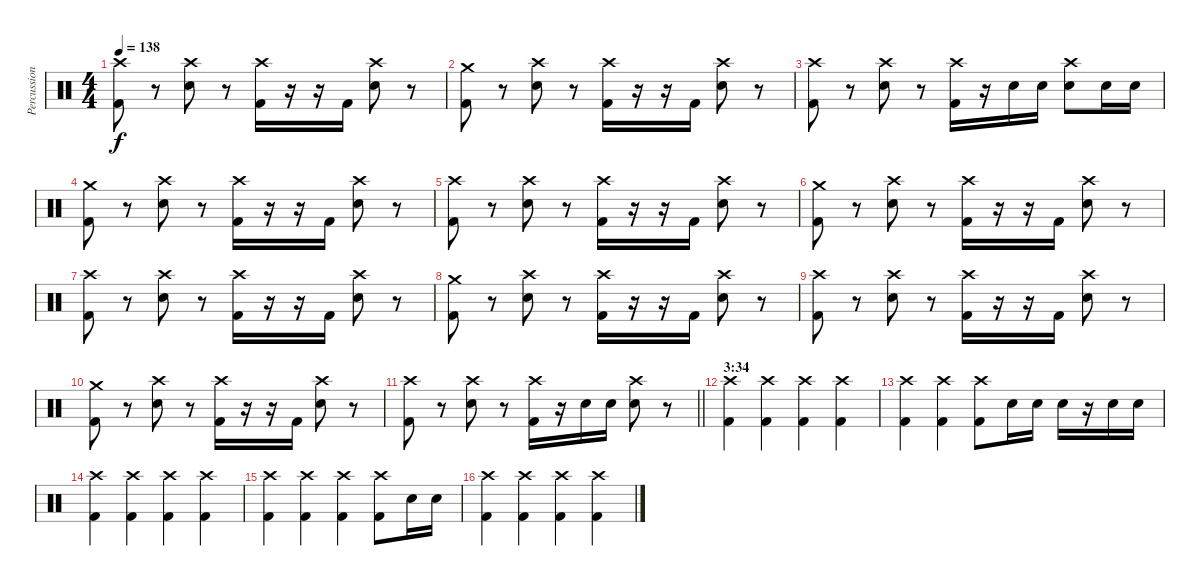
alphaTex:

\track ("Percussion" "Percussion") {instrument percussion}
\staff {score}
\articulation defaults
\ts (4 4)
\tempo 138
\clef neutral
\ks c
("Crash high (hit)" "Kick (hit) 2").8{dy f} r.8 ("Crash high (hit)" "Electric Snare (hit)").8 r.8 ("Crash high (hit)" "Kick (hit) 2").16 r.16 r.16 "Kick (hit) 2".16 ("Crash high (hit)" "Electric Snare (hit)").8 r.8 |
("Crash medium (hit)" "Kick (hit) 2").8 r.8 ("Crash high (hit)" "Electric Snare (hit)").8 r.8 ("Crash high (hit)" "Kick (hit) 2").16 r.16 r.16 "Kick (hit) 2".16 ("Crash high (hit)" "Electric Snare (hit)").8 r.8 |
("Crash high (hit)" "Kick (hit) 2").8 r.8 ("Crash high (hit)" "Electric Snare (hit)").8 r.8 ("Crash high (hit)" "Kick (hit) 2").16 r.16 "Electric Snare (hit)".16 "Electric Snare (hit)".16 ("Crash high (hit)" "Electric Snare (hit)").8 "Electric Snare (hit)".16 "Electric Snare (hit)".16 |
("Crash medium (hit)" "Kick (hit) 2").8 r.8 ("Crash high (hit)" "Electric Snare (hit)").8 r.8 ("Crash high (hit)" "Kick (hit) 2").16 r.16 r.16 "Kick (hit) 2".16 ("Crash high (hit)" "Electric Snare (hit)").8 r.8 |
("Crash high (hit)" "Kick (hit) 2").8 r.8 ("Crash high (hit)" "Electric Snare (hit)").8 r.8 ("Crash high (hit)" "Kick (hit) 2").16 r.16 r.16 "Kick (hit) 2".16 ("Crash high (hit)" "Electric Snare (hit)").8 r.8 |
("Crash medium (hit)" "Kick (hit) 2").8 r.8 ("Crash high (hit)" "Electric Snare (hit)").8 r.8 ("Crash high (hit)" "Kick (hit) 2").16 r.16 r.16 "Kick (hit) 2".16 ("Crash high (hit)" "Electric Snare (hit)").8 r.8 |
("Crash high (hit)" "Kick (hit) 2").8 r.8 ("Crash high (hit)" "Electric Snare (hit)").8 r.8 ("Crash high (hit)" "Kick (hit) 2").16 r.16 r.16 "Kick (hit) 2".16 ("Crash high (hit)" "Electric Snare (hit)").8 r.8 |
("Crash medium (hit)" "Kick (hit) 2").8 r.8 ("Crash high (hit)" "Electric Snare (hit)").8 r.8 ("Crash high (hit)" "Kick (hit) 2").16 r.16 r.16 "Kick (hit) 2".16 ("Crash high (hit)" "Electric Snare (hit)").8 r.8 |
("Crash high (hit)" "Kick (hit) 2").8 r.8 ("Crash high (hit)" "Electric Snare (hit)").8 r.8 ("Crash high (hit)" "Kick (hit) 2").16 r.16 r.16 "Kick (hit) 2".16 ("Crash high (hit)" "Electric Snare (hit)").8 r.8 |
("Crash medium (hit)" "Kick (hit) 2").8 r.8 ("Crash high (hit)" "Electric Snare (hit)").8 r.8 ("Crash high (hit)" "Kick (hit) 2").16 r.16 r.16 "Kick (hit) 2".16 ("Crash high (hit)" "Electric Snare (hit)").8 r.8 |
\barLineRight lightlight
("Crash high (hit)" "Kick (hit) 2").8 r.8 ("Crash high (hit)" "Electric Snare (hit)").8 r.8 ("Crash high (hit)" "Kick (hit) 2").16 r.16 "Electric Snare (hit)".16 "Electric Snare (hit)".16 ("Crash high (hit)" "Electric Snare (hit)").8 r.8 |
\section ("" "3:34")
("Crash high (hit)" "Kick (hit) 2").4 ("Crash high (hit)" "Kick (hit) 2").4 ("Crash high (hit)" "Kick (hit) 2").4 ("Crash high (hit)" "Kick (hit) 2").4 |
("Crash high (hit)" "Kick (hit) 2").4 ("Crash high (hit)" "Kick (hit) 2").4 ("Crash high (hit)" "Kick (hit) 2").8 "Electric Snare (hit)".16 "Electric Snare (hit)".16 "Electric Snare (hit)".16 r.16 "Electric Snare (hit)".16 "Electric Snare (hit)".16 |
("Crash high (hit)" "Kick (hit) 2").4 ("Crash high (hit)" "Kick (hit) 2").4 ("Crash high (hit)" "Kick (hit) 2").4 ("Crash high (hit)" "Kick (hit) 2").4 |
("Crash high (hit)" "Kick (hit) 2").4 ("Crash high (hit)" "Kick (hit) 2").4 ("Crash high (hit)" "Kick (hit) 2").4 ("Crash high (hit)" "Kick (hit) 2").8 "Electric Snare (hit)".16 "Electric Snare (hit)".16 |
("Crash high (hit)" "Kick (hit) 2").4 ("Crash high (hit)" "Kick (hit) 2").4 ("Crash high (hit)" "Kick (hit) 2").4 ("Crash high (hit)" "Kick (hit) 2").4
